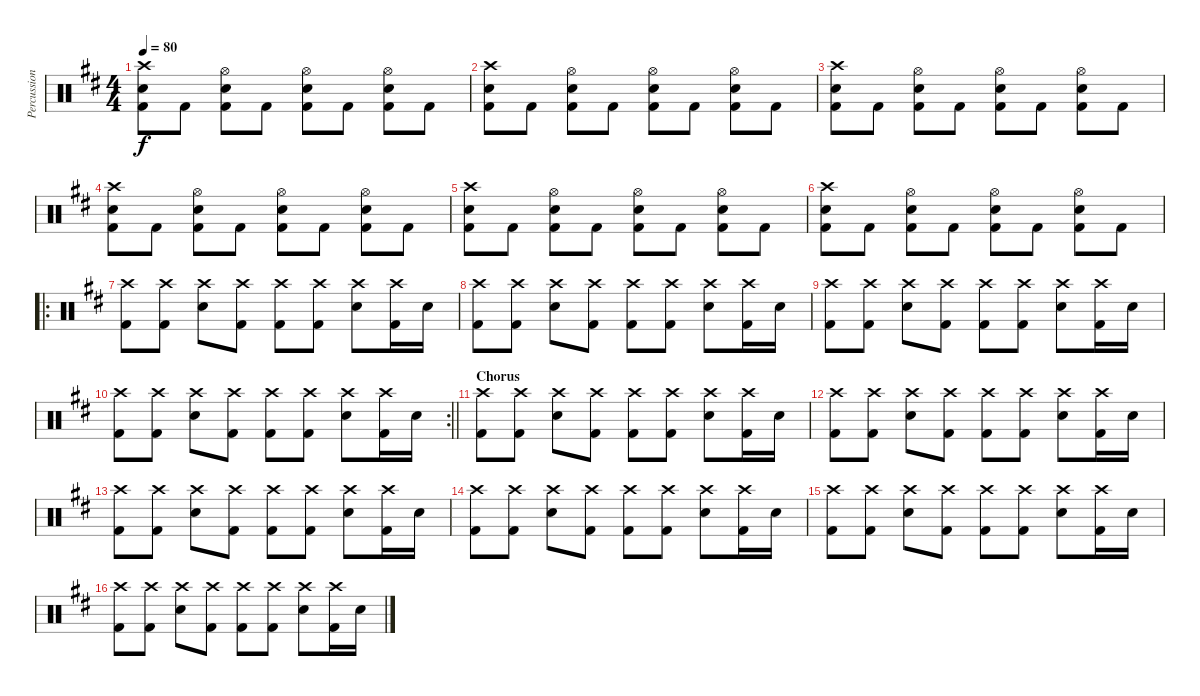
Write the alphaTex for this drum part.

\track ("Percussion" "Percussion") {instrument percussion}
\staff {score}
\articulation defaults
\ts (4 4)
\tempo 80
\clef neutral
\ks d
("Crash high (hit)" "Electric Snare (hit)" "Kick (hit) 2").8{dy f} "Kick (hit) 2".8 ("Hi-Hat (open)" "Electric Snare (hit)" "Kick (hit) 2").8 "Kick (hit) 2".8 ("Hi-Hat (open)" "Electric Snare (hit)" "Kick (hit) 2").8 "Kick (hit) 2".8 ("Hi-Hat (open)" "Electric Snare (hit)" "Kick (hit) 2").8 "Kick (hit) 2".8 |
("Crash high (hit)" "Electric Snare (hit)" "Kick (hit) 2").8 "Kick (hit) 2".8 ("Hi-Hat (open)" "Electric Snare (hit)" "Kick (hit) 2").8 "Kick (hit) 2".8 ("Hi-Hat (open)" "Electric Snare (hit)" "Kick (hit) 2").8 "Kick (hit) 2".8 ("Hi-Hat (open)" "Electric Snare (hit)" "Kick (hit) 2").8 "Kick (hit) 2".8 |
("Crash high (hit)" "Electric Snare (hit)" "Kick (hit) 2").8 "Kick (hit) 2".8 ("Hi-Hat (open)" "Electric Snare (hit)" "Kick (hit) 2").8 "Kick (hit) 2".8 ("Hi-Hat (open)" "Electric Snare (hit)" "Kick (hit) 2").8 "Kick (hit) 2".8 ("Hi-Hat (open)" "Electric Snare (hit)" "Kick (hit) 2").8 "Kick (hit) 2".8 |
("Crash high (hit)" "Electric Snare (hit)" "Kick (hit) 2").8 "Kick (hit) 2".8 ("Hi-Hat (open)" "Electric Snare (hit)" "Kick (hit) 2").8 "Kick (hit) 2".8 ("Hi-Hat (open)" "Electric Snare (hit)" "Kick (hit) 2").8 "Kick (hit) 2".8 ("Hi-Hat (open)" "Electric Snare (hit)" "Kick (hit) 2").8 "Kick (hit) 2".8 |
("Crash high (hit)" "Electric Snare (hit)" "Kick (hit) 2").8 "Kick (hit) 2".8 ("Hi-Hat (open)" "Electric Snare (hit)" "Kick (hit) 2").8 "Kick (hit) 2".8 ("Hi-Hat (open)" "Electric Snare (hit)" "Kick (hit) 2").8 "Kick (hit) 2".8 ("Hi-Hat (open)" "Electric Snare (hit)" "Kick (hit) 2").8 "Kick (hit) 2".8 |
("Crash high (hit)" "Electric Snare (hit)" "Kick (hit) 2").8 "Kick (hit) 2".8 ("Hi-Hat (open)" "Electric Snare (hit)" "Kick (hit) 2").8 "Kick (hit) 2".8 ("Hi-Hat (open)" "Electric Snare (hit)" "Kick (hit) 2").8 "Kick (hit) 2".8 ("Hi-Hat (open)" "Electric Snare (hit)" "Kick (hit) 2").8 "Kick (hit) 2".8 |
\ro
("Crash high (hit)" "Kick (hit) 2").8 ("Crash high (hit)" "Kick (hit) 2").8 ("Crash high (hit)" "Electric Snare (hit)").8 ("Crash high (hit)" "Kick (hit) 2").8 ("Crash high (hit)" "Kick (hit) 2").8 ("Crash high (hit)" "Kick (hit) 2").8 ("Crash high (hit)" "Electric Snare (hit)").8 ("Crash high (hit)" "Kick (hit) 2").16 "Electric Snare (hit)".16 |
("Crash high (hit)" "Kick (hit) 2").8 ("Crash high (hit)" "Kick (hit) 2").8 ("Crash high (hit)" "Electric Snare (hit)").8 ("Crash high (hit)" "Kick (hit) 2").8 ("Crash high (hit)" "Kick (hit) 2").8 ("Crash high (hit)" "Kick (hit) 2").8 ("Crash high (hit)" "Electric Snare (hit)").8 ("Crash high (hit)" "Kick (hit) 2").16 "Electric Snare (hit)".16 |
("Crash high (hit)" "Kick (hit) 2").8 ("Crash high (hit)" "Kick (hit) 2").8 ("Crash high (hit)" "Electric Snare (hit)").8 ("Crash high (hit)" "Kick (hit) 2").8 ("Crash high (hit)" "Kick (hit) 2").8 ("Crash high (hit)" "Kick (hit) 2").8 ("Crash high (hit)" "Electric Snare (hit)").8 ("Crash high (hit)" "Kick (hit) 2").16 "Electric Snare (hit)".16 |
\rc 2
\barLineRight lightlight
("Crash high (hit)" "Kick (hit) 2").8 ("Crash high (hit)" "Kick (hit) 2").8 ("Crash high (hit)" "Electric Snare (hit)").8 ("Crash high (hit)" "Kick (hit) 2").8 ("Crash high (hit)" "Kick (hit) 2").8 ("Crash high (hit)" "Kick (hit) 2").8 ("Crash high (hit)" "Electric Snare (hit)").8 ("Crash high (hit)" "Kick (hit) 2").16 "Electric Snare (hit)".16 |
\section ("" "Chorus")
("Crash high (hit)" "Kick (hit) 2").8 ("Crash high (hit)" "Kick (hit) 2").8 ("Crash high (hit)" "Electric Snare (hit)").8 ("Crash high (hit)" "Kick (hit) 2").8 ("Crash high (hit)" "Kick (hit) 2").8 ("Crash high (hit)" "Kick (hit) 2").8 ("Crash high (hit)" "Electric Snare (hit)").8 ("Crash high (hit)" "Kick (hit) 2").16 "Electric Snare (hit)".16 |
("Crash high (hit)" "Kick (hit) 2").8 ("Crash high (hit)" "Kick (hit) 2").8 ("Crash high (hit)" "Electric Snare (hit)").8 ("Crash high (hit)" "Kick (hit) 2").8 ("Crash high (hit)" "Kick (hit) 2").8 ("Crash high (hit)" "Kick (hit) 2").8 ("Crash high (hit)" "Electric Snare (hit)").8 ("Crash high (hit)" "Kick (hit) 2").16 "Electric Snare (hit)".16 |
("Crash high (hit)" "Kick (hit) 2").8 ("Crash high (hit)" "Kick (hit) 2").8 ("Crash high (hit)" "Electric Snare (hit)").8 ("Crash high (hit)" "Kick (hit) 2").8 ("Crash high (hit)" "Kick (hit) 2").8 ("Crash high (hit)" "Kick (hit) 2").8 ("Crash high (hit)" "Electric Snare (hit)").8 ("Crash high (hit)" "Kick (hit) 2").16 "Electric Snare (hit)".16 |
("Crash high (hit)" "Kick (hit) 2").8 ("Crash high (hit)" "Kick (hit) 2").8 ("Crash high (hit)" "Electric Snare (hit)").8 ("Crash high (hit)" "Kick (hit) 2").8 ("Crash high (hit)" "Kick (hit) 2").8 ("Crash high (hit)" "Kick (hit) 2").8 ("Crash high (hit)" "Electric Snare (hit)").8 ("Crash high (hit)" "Kick (hit) 2").16 "Electric Snare (hit)".16 |
("Crash high (hit)" "Kick (hit) 2").8 ("Crash high (hit)" "Kick (hit) 2").8 ("Crash high (hit)" "Electric Snare (hit)").8 ("Crash high (hit)" "Kick (hit) 2").8 ("Crash high (hit)" "Kick (hit) 2").8 ("Crash high (hit)" "Kick (hit) 2").8 ("Crash high (hit)" "Electric Snare (hit)").8 ("Crash high (hit)" "Kick (hit) 2").16 "Electric Snare (hit)".16 |
("Crash high (hit)" "Kick (hit) 2").8 ("Crash high (hit)" "Kick (hit) 2").8 ("Crash high (hit)" "Electric Snare (hit)").8 ("Crash high (hit)" "Kick (hit) 2").8 ("Crash high (hit)" "Kick (hit) 2").8 ("Crash high (hit)" "Kick (hit) 2").8 ("Crash high (hit)" "Electric Snare (hit)").8 ("Crash high (hit)" "Kick (hit) 2").16 "Electric Snare (hit)".16
